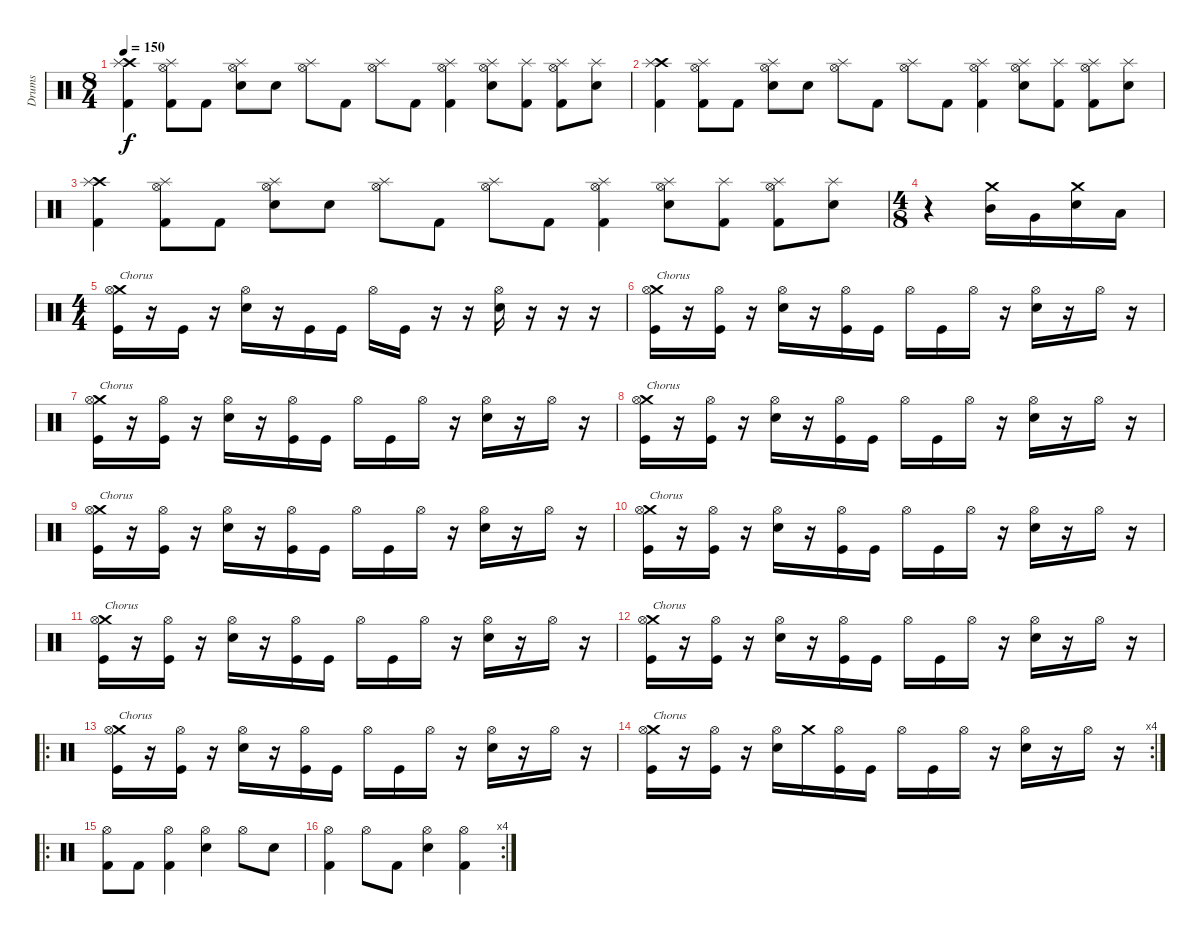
\track ("Drums" "Drums") {instrument percussion}
\staff {score}
\articulation defaults
\ts (8 4)
\tempo 150
\clef neutral
\ks c
("Crash high (hit)" "Kick (hit) 2" "Splash (hit)").4{dy f} ("Hi-Hat (open)" "Kick (hit) 2" "Splash (hit)").8 "Kick (hit) 2".8 ("Hi-Hat (open)" "Electric Snare (hit)" "Splash (hit)").8 "Electric Snare (hit)".8 ("Hi-Hat (open)" "Splash (hit)").8 "Kick (hit) 2".8 ("Hi-Hat (open)" "Splash (hit)").8 "Kick (hit) 2".8 ("Hi-Hat (open)" "Kick (hit) 2" "Splash (hit)").4 ("Hi-Hat (open)" "Electric Snare (hit)" "Splash (hit)").8 ("Kick (hit) 2" "Splash (hit)").8 ("Hi-Hat (open)" "Kick (hit) 2" "Splash (hit)").8 ("Electric Snare (hit)" "Splash (hit)").8 |
("Crash high (hit)" "Kick (hit) 2" "Splash (hit)").4 ("Hi-Hat (open)" "Kick (hit) 2" "Splash (hit)").8 "Kick (hit) 2".8 ("Hi-Hat (open)" "Electric Snare (hit)" "Splash (hit)").8 "Electric Snare (hit)".8 ("Hi-Hat (open)" "Splash (hit)").8 "Kick (hit) 2".8 ("Hi-Hat (open)" "Splash (hit)").8 "Kick (hit) 2".8 ("Hi-Hat (open)" "Kick (hit) 2" "Splash (hit)").4 ("Hi-Hat (open)" "Electric Snare (hit)" "Splash (hit)").8 ("Kick (hit) 2" "Splash (hit)").8 ("Hi-Hat (open)" "Kick (hit) 2" "Splash (hit)").8 ("Electric Snare (hit)" "Splash (hit)").8 |
("Crash high (hit)" "Kick (hit) 2" "Splash (hit)").4 ("Hi-Hat (open)" "Kick (hit) 2" "Splash (hit)").8 "Kick (hit) 2".8 ("Hi-Hat (open)" "Electric Snare (hit)" "Splash (hit)").8 "Electric Snare (hit)".8 ("Hi-Hat (open)" "Splash (hit)").8 "Kick (hit) 2".8 ("Hi-Hat (open)" "Splash (hit)").8 "Kick (hit) 2".8 ("Hi-Hat (open)" "Kick (hit) 2" "Splash (hit)").4 ("Hi-Hat (open)" "Electric Snare (hit)" "Splash (hit)").8 ("Kick (hit) 2" "Splash (hit)").8 ("Hi-Hat (open)" "Kick (hit) 2" "Splash (hit)").8 ("Electric Snare (hit)" "Splash (hit)").8 |
\ts (4 8)
r.4 ("Mid Tom (hit)" "Crash medium (hit)").16 "Very Low Tom (hit)".16 ("Electric Snare (hit)" "Crash medium (hit)").16 "Low Tom (hit)".16 |
\ts (4 4)
("Crash medium (hit)" "Hi-Hat (open)" "Kick (hit)").16{txt "Chorus"} r.16 "Kick (hit)".16 r.16 ("Hi-Hat (open)" "Electric Snare (hit)").16 r.16 "Kick (hit)".16 "Kick (hit)".16 "Hi-Hat (open)".16 "Kick (hit)".16 r.16 r.16 ("Hi-Hat (open)" "Electric Snare (hit)").16 r.16 r.16 r.16 |
("Crash medium (hit)" "Hi-Hat (open)" "Kick (hit)").16{txt "Chorus"} r.16 ("Hi-Hat (open)" "Kick (hit)").16 r.16 ("Hi-Hat (open)" "Electric Snare (hit)").16 r.16 ("Hi-Hat (open)" "Kick (hit)").16 "Kick (hit)".16 "Hi-Hat (open)".16 "Kick (hit)".16 "Hi-Hat (open)".16 r.16 ("Hi-Hat (open)" "Electric Snare (hit)").16 r.16 "Hi-Hat (open)".16 r.16 |
("Crash medium (hit)" "Hi-Hat (open)" "Kick (hit)").16{txt "Chorus"} r.16 ("Hi-Hat (open)" "Kick (hit)").16 r.16 ("Hi-Hat (open)" "Electric Snare (hit)").16 r.16 ("Hi-Hat (open)" "Kick (hit)").16 "Kick (hit)".16 "Hi-Hat (open)".16 "Kick (hit)".16 "Hi-Hat (open)".16 r.16 ("Hi-Hat (open)" "Electric Snare (hit)").16 r.16 "Hi-Hat (open)".16 r.16 |
("Crash medium (hit)" "Hi-Hat (open)" "Kick (hit)").16{txt "Chorus"} r.16 ("Hi-Hat (open)" "Kick (hit)").16 r.16 ("Hi-Hat (open)" "Electric Snare (hit)").16 r.16 ("Hi-Hat (open)" "Kick (hit)").16 "Kick (hit)".16 "Hi-Hat (open)".16 "Kick (hit)".16 "Hi-Hat (open)".16 r.16 ("Hi-Hat (open)" "Electric Snare (hit)").16 r.16 "Hi-Hat (open)".16 r.16 |
("Crash medium (hit)" "Hi-Hat (open)" "Kick (hit)").16{txt "Chorus"} r.16 ("Hi-Hat (open)" "Kick (hit)").16 r.16 ("Hi-Hat (open)" "Electric Snare (hit)").16 r.16 ("Hi-Hat (open)" "Kick (hit)").16 "Kick (hit)".16 "Hi-Hat (open)".16 "Kick (hit)".16 "Hi-Hat (open)".16 r.16 ("Hi-Hat (open)" "Electric Snare (hit)").16 r.16 "Hi-Hat (open)".16 r.16 |
("Crash medium (hit)" "Hi-Hat (open)" "Kick (hit)").16{txt "Chorus"} r.16 ("Hi-Hat (open)" "Kick (hit)").16 r.16 ("Hi-Hat (open)" "Electric Snare (hit)").16 r.16 ("Hi-Hat (open)" "Kick (hit)").16 "Kick (hit)".16 "Hi-Hat (open)".16 "Kick (hit)".16 "Hi-Hat (open)".16 r.16 ("Hi-Hat (open)" "Electric Snare (hit)").16 r.16 "Hi-Hat (open)".16 r.16 |
("Crash medium (hit)" "Hi-Hat (open)" "Kick (hit)").16{txt "Chorus"} r.16 ("Hi-Hat (open)" "Kick (hit)").16 r.16 ("Hi-Hat (open)" "Electric Snare (hit)").16 r.16 ("Hi-Hat (open)" "Kick (hit)").16 "Kick (hit)".16 "Hi-Hat (open)".16 "Kick (hit)".16 "Hi-Hat (open)".16 r.16 ("Hi-Hat (open)" "Electric Snare (hit)").16 r.16 "Hi-Hat (open)".16 r.16 |
("Crash medium (hit)" "Hi-Hat (open)" "Kick (hit)").16{txt "Chorus"} r.16 ("Hi-Hat (open)" "Kick (hit)").16 r.16 ("Hi-Hat (open)" "Electric Snare (hit)").16 r.16 ("Hi-Hat (open)" "Kick (hit)").16 "Kick (hit)".16 "Hi-Hat (open)".16 "Kick (hit)".16 "Hi-Hat (open)".16 r.16 ("Hi-Hat (open)" "Electric Snare (hit)").16 r.16 "Hi-Hat (open)".16 r.16 |
\ro
("Crash medium (hit)" "Hi-Hat (open)" "Kick (hit)").16{txt "Chorus"} r.16 ("Hi-Hat (open)" "Kick (hit)").16 r.16 ("Hi-Hat (open)" "Electric Snare (hit)").16 r.16 ("Hi-Hat (open)" "Kick (hit)").16 "Kick (hit)".16 "Hi-Hat (open)".16 "Kick (hit)".16 "Hi-Hat (open)".16 r.16 ("Hi-Hat (open)" "Electric Snare (hit)").16 r.16 "Hi-Hat (open)".16 r.16 |
\rc 4
("Crash medium (hit)" "Hi-Hat (open)" "Kick (hit)").16{txt "Chorus"} r.16 ("Hi-Hat (open)" "Kick (hit)").16 r.16 ("Hi-Hat (open)" "Electric Snare (hit)").16 "Crash medium (hit)".16 ("Hi-Hat (open)" "Kick (hit)").16 "Kick (hit)".16 "Hi-Hat (open)".16 "Kick (hit)".16 "Hi-Hat (open)".16 r.16 ("Hi-Hat (open)" "Electric Snare (hit)").16 r.16 "Hi-Hat (open)".16 r.16 |
\ro
("Hi-Hat (open)" "Kick (hit) 2").8 "Kick (hit) 2".8 ("Hi-Hat (open)" "Kick (hit) 2").4 ("Hi-Hat (open)" "Electric Snare (hit)").4 "Hi-Hat (open)".8 "Electric Snare (hit)".8 |
\rc 4
("Hi-Hat (open)" "Kick (hit) 2").4 "Hi-Hat (open)".8 "Kick (hit) 2".8 ("Hi-Hat (open)" "Electric Snare (hit)").4 ("Hi-Hat (open)" "Kick (hit) 2").4
